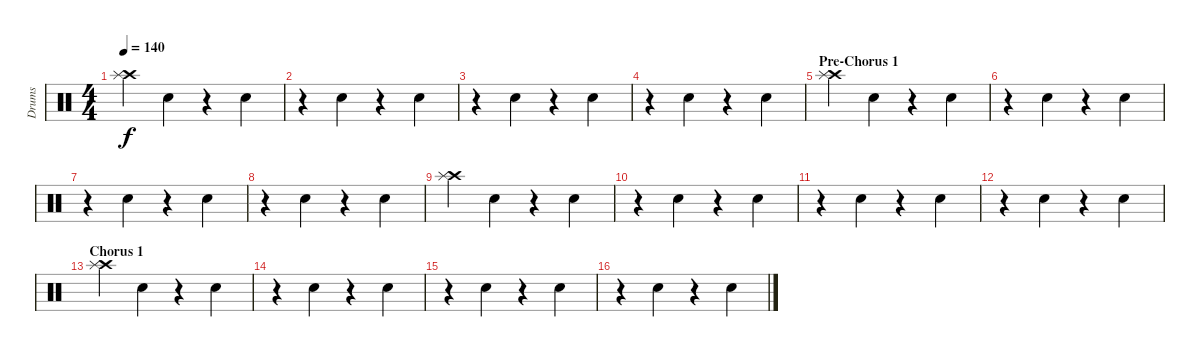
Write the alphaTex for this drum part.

\track ("Drums" "Drums") {instrument percussion}
\staff {score}
\articulation defaults
\ts (4 4)
\tempo 140
\clef neutral
\ks c
("Crash high (hit)" "Splash (hit)").4{dy f} "Snare (hit) 2".4 r.4 "Snare (hit) 2".4 |
r.4 "Snare (hit) 2".4 r.4 "Snare (hit) 2".4 |
r.4 "Snare (hit) 2".4 r.4 "Snare (hit) 2".4 |
r.4 "Snare (hit) 2".4 r.4 "Snare (hit) 2".4 |
\section ("" "Pre-Chorus 1")
("Crash high (hit)" "Splash (hit)").4 "Snare (hit) 2".4 r.4 "Snare (hit) 2".4 |
r.4 "Snare (hit) 2".4 r.4 "Snare (hit) 2".4 |
r.4 "Snare (hit) 2".4 r.4 "Snare (hit) 2".4 |
r.4 "Snare (hit) 2".4 r.4 "Snare (hit) 2".4 |
("Crash high (hit)" "Splash (hit)").4 "Snare (hit) 2".4 r.4 "Snare (hit) 2".4 |
r.4 "Snare (hit) 2".4 r.4 "Snare (hit) 2".4 |
r.4 "Snare (hit) 2".4 r.4 "Snare (hit) 2".4 |
r.4 "Snare (hit) 2".4 r.4 "Snare (hit) 2".4 |
\section ("" "Chorus 1")
("Crash high (hit)" "Splash (hit)").4 "Snare (hit) 2".4 r.4 "Snare (hit) 2".4 |
r.4 "Snare (hit) 2".4 r.4 "Snare (hit) 2".4 |
r.4 "Snare (hit) 2".4 r.4 "Snare (hit) 2".4 |
r.4 "Snare (hit) 2".4 r.4 "Snare (hit) 2".4
